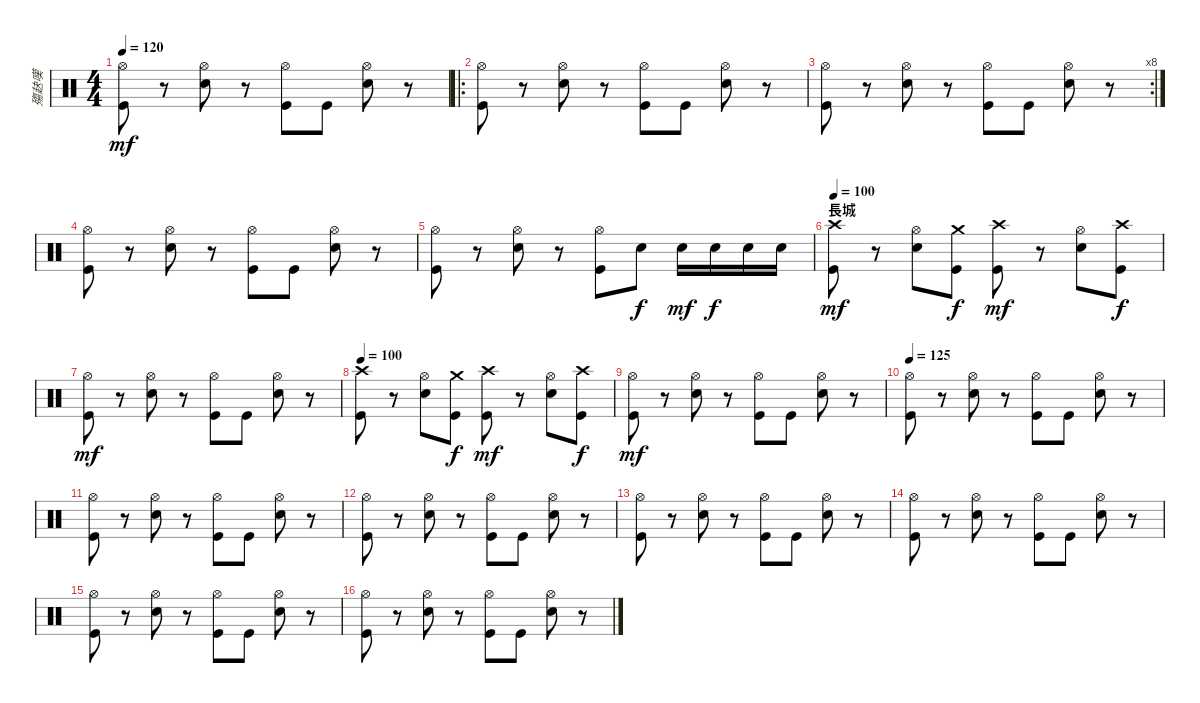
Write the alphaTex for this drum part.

\track ("殤赽嘆" "殤赽嘆") {instrument percussion}
\staff {score}
\articulation defaults
\ts (4 4)
\tempo 120
\clef neutral
\ks c
("Hi-Hat (open)" "Kick (hit)").8{dy mf} r.8 ("Hi-Hat (open)" "Snare (hit) 2").8 r.8 ("Hi-Hat (open)" "Kick (hit)").8 "Kick (hit)".8 ("Hi-Hat (open)" "Snare (hit) 2").8 r.8 |
\ro
("Hi-Hat (open)" "Kick (hit)").8 r.8 ("Hi-Hat (open)" "Snare (hit) 2").8 r.8 ("Hi-Hat (open)" "Kick (hit)").8 "Kick (hit)".8 ("Hi-Hat (open)" "Snare (hit) 2").8 r.8 |
\rc 8
("Hi-Hat (open)" "Kick (hit)").8 r.8 ("Hi-Hat (open)" "Snare (hit) 2").8 r.8 ("Hi-Hat (open)" "Kick (hit)").8 "Kick (hit)".8 ("Hi-Hat (open)" "Snare (hit) 2").8 r.8 |
("Hi-Hat (open)" "Kick (hit)").8 r.8 ("Hi-Hat (open)" "Snare (hit) 2").8 r.8 ("Hi-Hat (open)" "Kick (hit)").8 "Kick (hit)".8 ("Hi-Hat (open)" "Snare (hit) 2").8 r.8 |
("Hi-Hat (open)" "Kick (hit)").8 r.8 ("Hi-Hat (open)" "Snare (hit) 2").8 r.8 ("Hi-Hat (open)" "Kick (hit)").8 "Snare (hit) 2".8{dy f} "Snare (hit) 2".16{dy mf} "Snare (hit) 2".16{dy f} "Snare (hit) 2".16 "Snare (hit) 2".16 |
\section ("" "長城")
\tempo 80
\tempo 100
("Crash high (hit)" "Kick (hit)").8{dy mf} r.8 ("Hi-Hat (open)" "Snare (hit) 2").8 ("Crash medium (hit)" "Kick (hit)").8{dy f} ("Crash high (hit)" "Kick (hit)").8{dy mf} r.8 ("Hi-Hat (open)" "Snare (hit) 2").8 ("Crash high (hit)" "Kick (hit)").8{dy f} |
("Hi-Hat (open)" "Kick (hit)").8{dy mf} r.8 ("Hi-Hat (open)" "Snare (hit) 2").8 r.8 ("Hi-Hat (open)" "Kick (hit)").8 "Kick (hit)".8 ("Hi-Hat (open)" "Snare (hit) 2").8 r.8 |
\tempo 80
\tempo 100
("Crash high (hit)" "Kick (hit)").8 r.8 ("Hi-Hat (open)" "Snare (hit) 2").8 ("Crash medium (hit)" "Kick (hit)").8{dy f} ("Crash high (hit)" "Kick (hit)").8{dy mf} r.8 ("Hi-Hat (open)" "Snare (hit) 2").8 ("Crash high (hit)" "Kick (hit)").8{dy f} |
("Hi-Hat (open)" "Kick (hit)").8{dy mf} r.8 ("Hi-Hat (open)" "Snare (hit) 2").8 r.8 ("Hi-Hat (open)" "Kick (hit)").8 "Kick (hit)".8 ("Hi-Hat (open)" "Snare (hit) 2").8 r.8 |
\tempo 125
("Hi-Hat (open)" "Kick (hit)").8 r.8 ("Hi-Hat (open)" "Snare (hit) 2").8 r.8 ("Hi-Hat (open)" "Kick (hit)").8 "Kick (hit)".8 ("Hi-Hat (open)" "Snare (hit) 2").8 r.8 |
("Hi-Hat (open)" "Kick (hit)").8 r.8 ("Hi-Hat (open)" "Snare (hit) 2").8 r.8 ("Hi-Hat (open)" "Kick (hit)").8 "Kick (hit)".8 ("Hi-Hat (open)" "Snare (hit) 2").8 r.8 |
("Hi-Hat (open)" "Kick (hit)").8 r.8 ("Hi-Hat (open)" "Snare (hit) 2").8 r.8 ("Hi-Hat (open)" "Kick (hit)").8 "Kick (hit)".8 ("Hi-Hat (open)" "Snare (hit) 2").8 r.8 |
("Hi-Hat (open)" "Kick (hit)").8 r.8 ("Hi-Hat (open)" "Snare (hit) 2").8 r.8 ("Hi-Hat (open)" "Kick (hit)").8 "Kick (hit)".8 ("Hi-Hat (open)" "Snare (hit) 2").8 r.8 |
("Hi-Hat (open)" "Kick (hit)").8 r.8 ("Hi-Hat (open)" "Snare (hit) 2").8 r.8 ("Hi-Hat (open)" "Kick (hit)").8 "Kick (hit)".8 ("Hi-Hat (open)" "Snare (hit) 2").8 r.8 |
("Hi-Hat (open)" "Kick (hit)").8 r.8 ("Hi-Hat (open)" "Snare (hit) 2").8 r.8 ("Hi-Hat (open)" "Kick (hit)").8 "Kick (hit)".8 ("Hi-Hat (open)" "Snare (hit) 2").8 r.8 |
("Hi-Hat (open)" "Kick (hit)").8 r.8 ("Hi-Hat (open)" "Snare (hit) 2").8 r.8 ("Hi-Hat (open)" "Kick (hit)").8 "Kick (hit)".8 ("Hi-Hat (open)" "Snare (hit) 2").8 r.8
